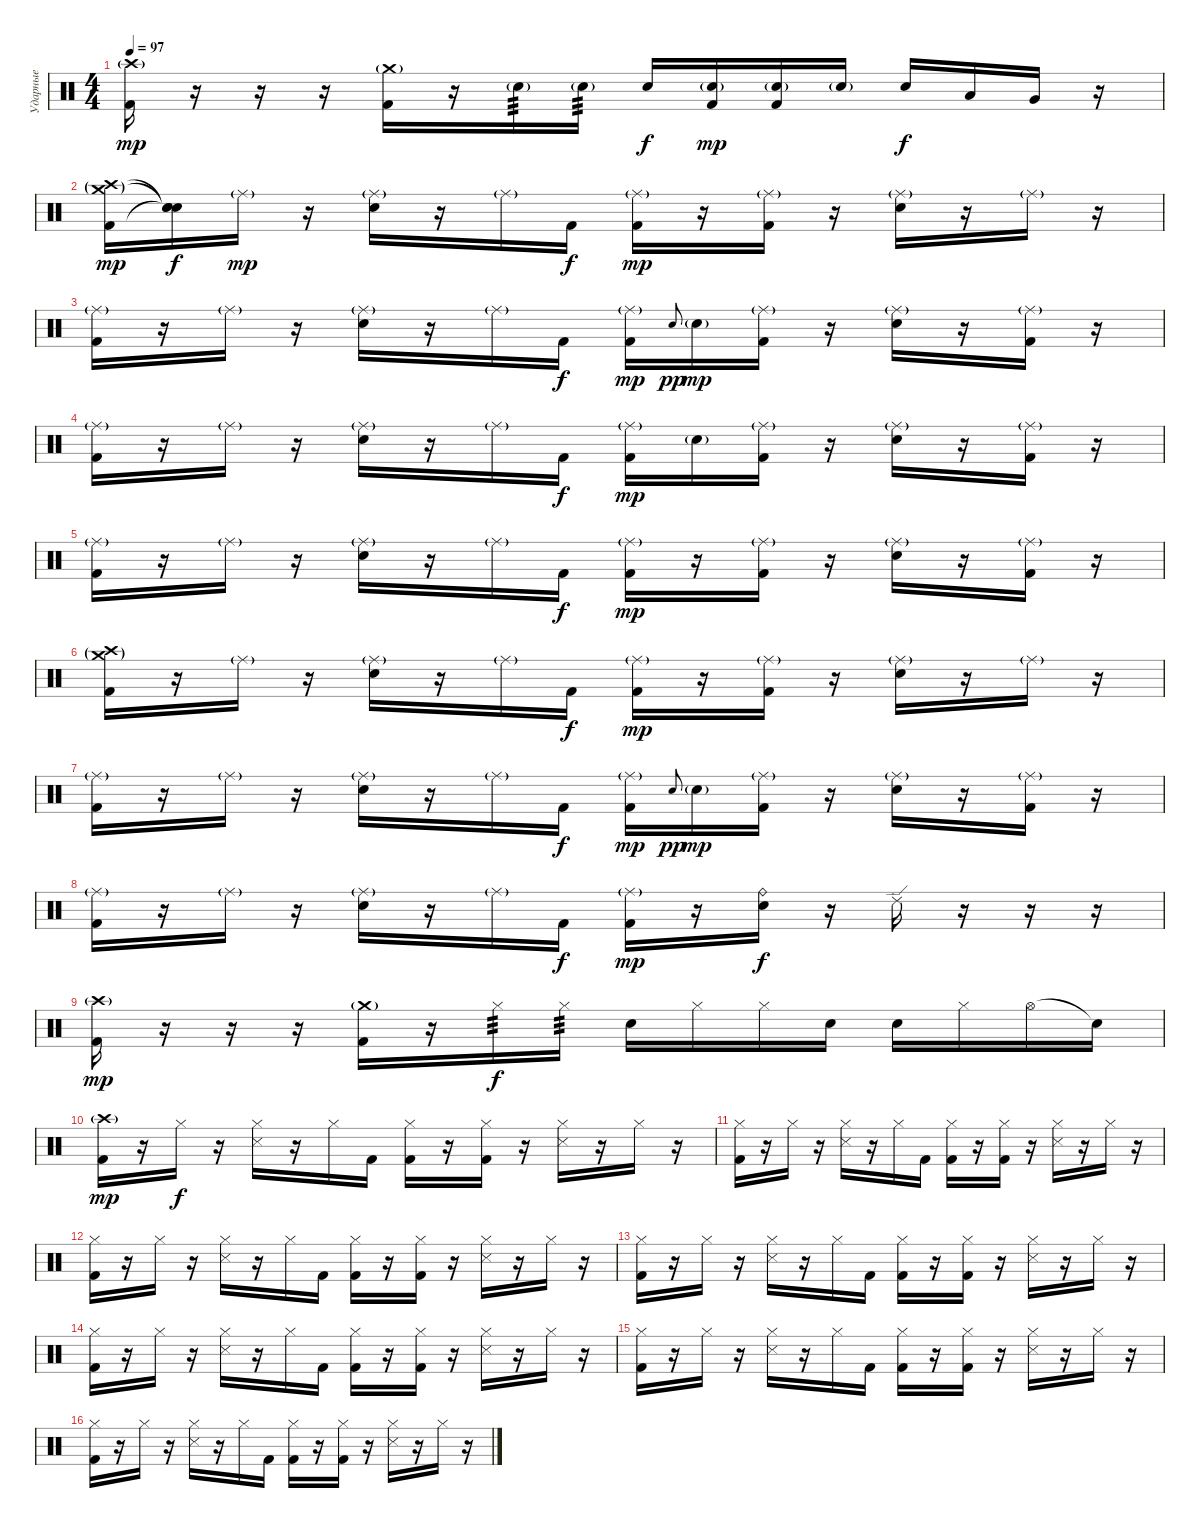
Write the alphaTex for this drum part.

\track ("Ударные" "Ударные") {instrument percussion}
\staff {score}
\articulation defaults
\ts (4 4)
\tempo 97
\clef neutral
\ks c
("Crash high (hit)"{g} "Kick (hit) 2").16{dy mp} r.16 r.16 r.16 ("Crash medium (hit)"{g} "Kick (hit) 2").16 r.16 "Electric Snare (hit)"{g}.16{tp 3} "Electric Snare (hit)"{g}.16{tp 3} "Electric Snare (hit)".16{dy f} ("Electric Snare (hit)"{g} "Kick (hit) 2").16{dy mp} ("Electric Snare (hit)"{g} "Kick (hit) 2").16 "Electric Snare (hit)"{g}.16 "Electric Snare (hit)".16{dy f} "Low Tom (hit)".16 "Very Low Tom (hit)".16 r.16 |
("Crash high (hit)"{g} "Crash medium (hit)"{g} "Kick (hit) 2").16{dy mp} ("Snare (hit)"{t} "Snare (hit)"{t} "Snare (hit)"{t}).16{dy f} "Ride (middle)"{g}.16{dy mp} r.16 ("Ride (middle)"{g} "Electric Snare (hit)").16 r.16 "Ride (middle)"{g}.16 "Kick (hit) 2".16{dy f} ("Ride (middle)"{g} "Kick (hit) 2").16{dy mp} r.16 ("Ride (middle)"{g} "Kick (hit) 2").16 r.16 ("Ride (middle)"{g} "Electric Snare (hit)").16 r.16 "Ride (middle)"{g}.16 r.16 |
("Ride (middle)"{g} "Kick (hit) 2").16 r.16 "Ride (middle)"{g}.16 r.16 ("Ride (middle)"{g} "Electric Snare (hit)").16 r.16 "Ride (middle)"{g}.16 "Kick (hit) 2".16{dy f} ("Ride (middle)"{g} "Kick (hit) 2").16{dy mp} "Electric Snare (hit)"{sl x}.8{gr onbeat dy pp} "Electric Snare (hit)"{g}.16{dy mp} ("Ride (middle)"{g} "Kick (hit) 2").16 r.16 ("Ride (middle)"{g} "Electric Snare (hit)").16 r.16 ("Ride (middle)"{g} "Kick (hit) 2").16 r.16 |
("Ride (middle)"{g} "Kick (hit) 2").16 r.16 "Ride (middle)"{g}.16 r.16 ("Ride (middle)"{g} "Electric Snare (hit)").16 r.16 "Ride (middle)"{g}.16 "Kick (hit) 2".16{dy f} ("Ride (middle)"{g} "Kick (hit) 2").16{dy mp} "Electric Snare (hit)"{g}.16 ("Ride (middle)"{g} "Kick (hit) 2").16 r.16 ("Ride (middle)"{g} "Electric Snare (hit)").16 r.16 ("Ride (middle)"{g} "Kick (hit) 2").16 r.16 |
("Ride (middle)"{g} "Kick (hit) 2").16 r.16 "Ride (middle)"{g}.16 r.16 ("Ride (middle)"{g} "Electric Snare (hit)").16 r.16 "Ride (middle)"{g}.16 "Kick (hit) 2".16{dy f} ("Ride (middle)"{g} "Kick (hit) 2").16{dy mp} r.16 ("Ride (middle)"{g} "Kick (hit) 2").16 r.16 ("Ride (middle)"{g} "Electric Snare (hit)").16 r.16 ("Ride (middle)"{g} "Kick (hit) 2").16 r.16 |
("Crash high (hit)"{g} "Crash medium (hit)"{g} "Kick (hit) 2").16 r.16 "Ride (middle)"{g}.16 r.16 ("Ride (middle)"{g} "Electric Snare (hit)").16 r.16 "Ride (middle)"{g}.16 "Kick (hit) 2".16{dy f} ("Ride (middle)"{g} "Kick (hit) 2").16{dy mp} r.16 ("Ride (middle)"{g} "Kick (hit) 2").16 r.16 ("Ride (middle)"{g} "Electric Snare (hit)").16 r.16 "Ride (middle)"{g}.16 r.16 |
("Ride (middle)"{g} "Kick (hit) 2").16 r.16 "Ride (middle)"{g}.16 r.16 ("Ride (middle)"{g} "Electric Snare (hit)").16 r.16 "Ride (middle)"{g}.16 "Kick (hit) 2".16{dy f} ("Ride (middle)"{g} "Kick (hit) 2").16{dy mp} "Electric Snare (hit)"{sl x}.8{gr onbeat dy pp} "Electric Snare (hit)"{g}.16{dy mp} ("Ride (middle)"{g} "Kick (hit) 2").16 r.16 ("Ride (middle)"{g} "Electric Snare (hit)").16 r.16 ("Ride (middle)"{g} "Kick (hit) 2").16 r.16 |
("Ride (middle)"{g} "Kick (hit) 2").16 r.16 "Ride (middle)"{g}.16 r.16 ("Ride (middle)"{g} "Electric Snare (hit)").16 r.16 "Ride (middle)"{g}.16 "Kick (hit) 2".16{dy f} ("Ride (middle)"{g} "Kick (hit) 2").16{dy mp} r.16 ("Ride (bell)" "Electric Snare (hit)").16{dy f} r.16 "Ride (edge) 2".16 r.16 r.16 r.16 |
("Crash high (hit)"{g} "Kick (hit) 2").16{dy mp} r.16 r.16 r.16 ("Crash medium (hit)"{g} "Kick (hit) 2").16 r.16 "Hi-Hat (closed)".16{tp 3 dy f} "Hi-Hat (closed)".16{tp 3} "Electric Snare (hit)".16 "Hi-Hat (closed)".16 "Hi-Hat (closed)".16 "Electric Snare (hit)".16 "Electric Snare (hit)".16 "Hi-Hat (closed)".16 "Hi-Hat (open)".16 "Snare (hit)"{t}.16 |
("Crash high (hit)"{g} "Kick (hit) 2").16{dy mp} r.16 "Hi-Hat (closed)".16{dy f} r.16 ("Hi-Hat (closed)" "Snare (side stick) 3").16 r.16 "Hi-Hat (closed)".16 "Kick (hit) 2".16 ("Hi-Hat (closed)" "Kick (hit) 2").16 r.16 ("Hi-Hat (closed)" "Kick (hit) 2").16 r.16 ("Hi-Hat (closed)" "Snare (side stick) 3").16 r.16 "Hi-Hat (closed)".16 r.16 |
("Hi-Hat (closed)" "Kick (hit) 2").16 r.16 "Hi-Hat (closed)".16 r.16 ("Hi-Hat (closed)" "Snare (side stick) 3").16 r.16 "Hi-Hat (closed)".16 "Kick (hit) 2".16 ("Hi-Hat (closed)" "Kick (hit) 2").16 r.16 ("Hi-Hat (closed)" "Kick (hit) 2").16 r.16 ("Hi-Hat (closed)" "Snare (side stick) 3").16 r.16 "Hi-Hat (closed)".16 r.16 |
("Hi-Hat (closed)" "Kick (hit) 2").16 r.16 "Hi-Hat (closed)".16 r.16 ("Hi-Hat (closed)" "Snare (side stick) 3").16 r.16 "Hi-Hat (closed)".16 "Kick (hit) 2".16 ("Hi-Hat (closed)" "Kick (hit) 2").16 r.16 ("Hi-Hat (closed)" "Kick (hit) 2").16 r.16 ("Hi-Hat (closed)" "Snare (side stick) 3").16 r.16 "Hi-Hat (closed)".16 r.16 |
("Hi-Hat (closed)" "Kick (hit) 2").16 r.16 "Hi-Hat (closed)".16 r.16 ("Hi-Hat (closed)" "Snare (side stick) 3").16 r.16 "Hi-Hat (closed)".16 "Kick (hit) 2".16 ("Hi-Hat (closed)" "Kick (hit) 2").16 r.16 ("Hi-Hat (closed)" "Kick (hit) 2").16 r.16 ("Hi-Hat (closed)" "Snare (side stick) 3").16 r.16 "Hi-Hat (closed)".16 r.16 |
("Hi-Hat (closed)" "Kick (hit) 2").16 r.16 "Hi-Hat (closed)".16 r.16 ("Hi-Hat (closed)" "Snare (side stick) 3").16 r.16 "Hi-Hat (closed)".16 "Kick (hit) 2".16 ("Hi-Hat (closed)" "Kick (hit) 2").16 r.16 ("Hi-Hat (closed)" "Kick (hit) 2").16 r.16 ("Hi-Hat (closed)" "Snare (side stick) 3").16 r.16 "Hi-Hat (closed)".16 r.16 |
("Hi-Hat (closed)" "Kick (hit) 2").16 r.16 "Hi-Hat (closed)".16 r.16 ("Hi-Hat (closed)" "Snare (side stick) 3").16 r.16 "Hi-Hat (closed)".16 "Kick (hit) 2".16 ("Hi-Hat (closed)" "Kick (hit) 2").16 r.16 ("Hi-Hat (closed)" "Kick (hit) 2").16 r.16 ("Hi-Hat (closed)" "Snare (side stick) 3").16 r.16 "Hi-Hat (closed)".16 r.16 |
("Hi-Hat (closed)" "Kick (hit) 2").16 r.16 "Hi-Hat (closed)".16 r.16 ("Hi-Hat (closed)" "Snare (side stick) 3").16 r.16 "Hi-Hat (closed)".16 "Kick (hit) 2".16 ("Hi-Hat (closed)" "Kick (hit) 2").16 r.16 ("Hi-Hat (closed)" "Kick (hit) 2").16 r.16 ("Hi-Hat (closed)" "Snare (side stick) 3").16 r.16 "Hi-Hat (closed)".16 r.16
